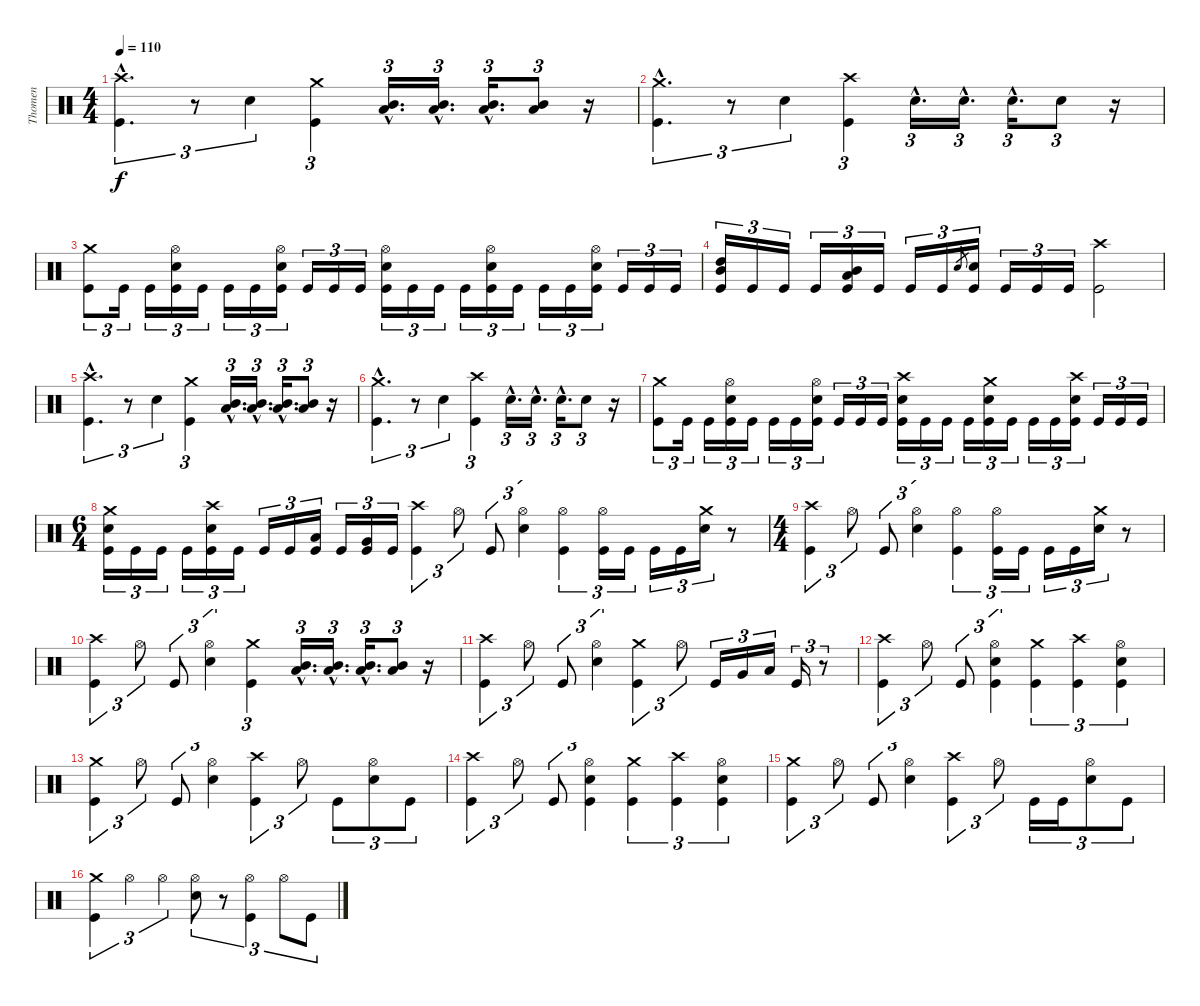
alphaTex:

\track ("Thomen" "Thomen") {instrument percussion}
\staff {score}
\articulation defaults
\ts (4 4)
\tempo 110
\clef neutral
\ks c
("Crash high (hit)"{hac} "Kick (hit)"{hac}).4{d tu (3 2) dy f} r.8{tu (3 2)} "Snare (hit) 2".4{tu (3 2)} ("Crash medium (hit)" "Kick (hit)").4{tu (3 2)} ("Low Tom (hit)"{hac} "Mid Tom (hit)"{hac}).16{d tu (3 2)} ("Low Tom (hit)"{hac} "Mid Tom (hit)"{hac}).16{d tu (3 2)} ("Low Tom (hit)"{hac} "Mid Tom (hit)"{hac}).16{d tu (3 2)} ("Low Tom (hit)" "Mid Tom (hit)").8{tu (3 2)} r.16 |
("Crash medium (hit)"{hac} "Kick (hit)"{hac}).4{d tu (3 2)} r.8{tu (3 2)} "Snare (hit) 2".4{tu (3 2)} ("Crash high (hit)" "Kick (hit)").4{tu (3 2)} "Snare (hit) 2"{hac}.16{d tu (3 2)} "Snare (hit) 2"{hac}.16{d tu (3 2)} "Snare (hit) 2"{hac}.16{d tu (3 2)} "Snare (hit) 2".8{tu (3 2)} r.16 |
("Crash medium (hit)" "Kick (hit)").8{tu (3 2)} "Kick (hit)".16{tu (3 2)} "Kick (hit)".16{tu (3 2)} ("Hi-Hat (open)" "Snare (hit) 2" "Kick (hit)").16{tu (3 2)} "Kick (hit)".16{tu (3 2)} "Kick (hit)".16{tu (3 2)} "Kick (hit)".16{tu (3 2)} ("Hi-Hat (open)" "Snare (hit) 2" "Kick (hit)").16{tu (3 2)} "Kick (hit)".16{tu (3 2)} "Kick (hit)".16{tu (3 2)} "Kick (hit)".16{tu (3 2)} ("Hi-Hat (open)" "Snare (hit) 2" "Kick (hit)").16{tu (3 2)} "Kick (hit)".16{tu (3 2)} "Kick (hit)".16{tu (3 2)} "Kick (hit)".16{tu (3 2)} ("Hi-Hat (open)" "Snare (hit) 2" "Kick (hit)").16{tu (3 2)} "Kick (hit)".16{tu (3 2)} "Kick (hit)".16{tu (3 2)} "Kick (hit)".16{tu (3 2)} ("Hi-Hat (open)" "Snare (hit) 2" "Kick (hit)").16{tu (3 2)} "Kick (hit)".16{tu (3 2)} "Kick (hit)".16{tu (3 2)} "Kick (hit)".16{tu (3 2)} |
("High Tom (hit)" "Mid Tom (hit)" "Kick (hit)").16{tu (3 2)} "Kick (hit)".16{tu (3 2)} "Kick (hit)".16{tu (3 2)} "Kick (hit)".16{tu (3 2)} ("Mid Tom (hit)" "Low Tom (hit)" "Kick (hit)").16{tu (3 2)} "Kick (hit)".16{tu (3 2)} "Kick (hit)".16{tu (3 2)} "Kick (hit)".16{tu (3 2)} "Snare (hit) 2".8{gr} ("Snare (hit) 2" "Kick (hit)").16{tu (3 2)} "Kick (hit)".16{tu (3 2)} "Kick (hit)".16{tu (3 2)} "Kick (hit)".16{tu (3 2)} ("Crash high (hit)" "Kick (hit)").2 |
("Crash high (hit)"{hac} "Kick (hit)"{hac}).4{d tu (3 2)} r.8{tu (3 2)} "Snare (hit) 2".4{tu (3 2)} ("Crash medium (hit)" "Kick (hit)").4{tu (3 2)} ("Low Tom (hit)"{hac} "Mid Tom (hit)"{hac}).16{d tu (3 2)} ("Low Tom (hit)"{hac} "Mid Tom (hit)"{hac}).16{d tu (3 2)} ("Low Tom (hit)"{hac} "Mid Tom (hit)"{hac}).16{d tu (3 2)} ("Low Tom (hit)" "Mid Tom (hit)").8{tu (3 2)} r.16 |
("Crash medium (hit)"{hac} "Kick (hit)"{hac}).4{d tu (3 2)} r.8{tu (3 2)} "Snare (hit) 2".4{tu (3 2)} ("Crash high (hit)" "Kick (hit)").4{tu (3 2)} "Snare (hit) 2"{hac}.16{d tu (3 2)} "Snare (hit) 2"{hac}.16{d tu (3 2)} "Snare (hit) 2"{hac}.16{d tu (3 2)} "Snare (hit) 2".8{tu (3 2)} r.16 |
("Crash medium (hit)" "Kick (hit)").8{tu (3 2)} "Kick (hit)".16{tu (3 2)} "Kick (hit)".16{tu (3 2)} ("Hi-Hat (open)" "Snare (hit) 2" "Kick (hit)").16{tu (3 2)} "Kick (hit)".16{tu (3 2)} "Kick (hit)".16{tu (3 2)} "Kick (hit)".16{tu (3 2)} ("Hi-Hat (open)" "Snare (hit) 2" "Kick (hit)").16{tu (3 2)} "Kick (hit)".16{tu (3 2)} "Kick (hit)".16{tu (3 2)} "Kick (hit)".16{tu (3 2)} ("Crash high (hit)" "Snare (hit) 2" "Kick (hit)").16{tu (3 2)} "Kick (hit)".16{tu (3 2)} "Kick (hit)".16{tu (3 2)} "Kick (hit)".16{tu (3 2)} ("Crash medium (hit)" "Snare (hit) 2" "Kick (hit)").16{tu (3 2)} "Kick (hit)".16{tu (3 2)} "Kick (hit)".16{tu (3 2)} "Kick (hit)".16{tu (3 2)} ("Crash high (hit)" "Snare (hit) 2" "Kick (hit)").16{tu (3 2)} "Kick (hit)".16{tu (3 2)} "Kick (hit)".16{tu (3 2)} "Kick (hit)".16{tu (3 2)} |
\ts (6 4)
("Crash medium (hit)" "Snare (hit) 2" "Kick (hit)").16{tu (3 2)} "Kick (hit)".16{tu (3 2)} "Kick (hit)".16{tu (3 2)} "Kick (hit)".16{tu (3 2)} ("Crash high (hit)" "Snare (hit) 2" "Kick (hit)").16{tu (3 2)} "Kick (hit)".16{tu (3 2)} "Kick (hit)".16{tu (3 2)} "Kick (hit)".16{tu (3 2)} ("Low Tom (hit)" "Kick (hit)").16{tu (3 2)} "Kick (hit)".16{tu (3 2)} ("Very Low Tom (hit)" "Kick (hit)").16{tu (3 2)} "Kick (hit)".16{tu (3 2)} ("Crash high (hit)" "Kick (hit)").4{tu (3 2)} "Hi-Hat (open)".8{tu (3 2)} "Kick (hit)".8{tu (3 2)} ("Hi-Hat (open)" "Snare (hit) 2").4{tu (3 2)} ("Hi-Hat (open)" "Kick (hit)").4{tu (3 2)} ("Hi-Hat (open)" "Kick (hit)").16{tu (3 2)} "Kick (hit)".16{tu (3 2)} "Kick (hit)".16{tu (3 2)} "Kick (hit)".16{tu (3 2)} ("Crash medium (hit)" "Snare (hit) 2").16{tu (3 2)} r.8 |
\ts (4 4)
("Crash high (hit)" "Kick (hit)").4{tu (3 2)} "Hi-Hat (open)".8{tu (3 2)} "Kick (hit)".8{tu (3 2)} ("Hi-Hat (open)" "Snare (hit) 2").4{tu (3 2)} ("Hi-Hat (open)" "Kick (hit)").4{tu (3 2)} ("Hi-Hat (open)" "Kick (hit)").16{tu (3 2)} "Kick (hit)".16{tu (3 2)} "Kick (hit)".16{tu (3 2)} "Kick (hit)".16{tu (3 2)} ("Crash medium (hit)" "Snare (hit) 2").16{tu (3 2)} r.8 |
("Crash high (hit)" "Kick (hit)").4{tu (3 2)} "Hi-Hat (open)".8{tu (3 2)} "Kick (hit)".8{tu (3 2)} ("Hi-Hat (open)" "Snare (hit) 2").4{tu (3 2)} ("Crash medium (hit)" "Kick (hit)").4{tu (3 2)} ("Low Tom (hit)"{hac} "Mid Tom (hit)"{hac}).16{d tu (3 2)} ("Low Tom (hit)"{hac} "Mid Tom (hit)"{hac}).16{d tu (3 2)} ("Low Tom (hit)"{hac} "Mid Tom (hit)"{hac}).16{d tu (3 2)} ("Low Tom (hit)" "Mid Tom (hit)").8{tu (3 2)} r.16 |
("Crash high (hit)" "Kick (hit)").4{tu (3 2)} "Hi-Hat (open)".8{tu (3 2)} "Kick (hit)".8{tu (3 2)} ("Hi-Hat (open)" "Snare (hit) 2").4{tu (3 2)} ("Crash medium (hit)" "Kick (hit)").4{tu (3 2)} "Hi-Hat (open)".8{tu (3 2)} "Kick (hit)".16{tu (3 2)} "Very Low Tom (hit)".16{tu (3 2)} "Low Floor Tom (hit)".16{tu (3 2)} "Kick (hit)".16{tu (3 2)} r.8{tu (3 2)} |
("Crash high (hit)" "Kick (hit)").4{tu (3 2)} "Hi-Hat (open)".8{tu (3 2)} "Kick (hit)".8{tu (3 2)} ("Hi-Hat (open)" "Snare (hit) 2" "Kick (hit)").4{tu (3 2)} ("Crash medium (hit)" "Kick (hit)").4{tu (3 2)} ("Crash high (hit)" "Kick (hit)").4{tu (3 2)} ("Hi-Hat (open)" "Snare (hit) 2" "Kick (hit)").4{tu (3 2)} |
("Crash medium (hit)" "Kick (hit)").4{tu (3 2)} "Hi-Hat (open)".8{tu (3 2)} "Kick (hit)".8{tu (3 2)} ("Hi-Hat (open)" "Snare (hit) 2").4{tu (3 2)} ("Crash high (hit)" "Kick (hit)").4{tu (3 2)} "Hi-Hat (open)".8{tu (3 2)} "Kick (hit)".8{tu (3 2)} ("Hi-Hat (open)" "Snare (hit) 2").8{tu (3 2)} "Kick (hit)".8{tu (3 2)} |
("Crash high (hit)" "Kick (hit)").4{tu (3 2)} "Hi-Hat (open)".8{tu (3 2)} "Kick (hit)".8{tu (3 2)} ("Hi-Hat (open)" "Snare (hit) 2" "Kick (hit)").4{tu (3 2)} ("Crash medium (hit)" "Kick (hit)").4{tu (3 2)} ("Crash high (hit)" "Kick (hit)").4{tu (3 2)} ("Hi-Hat (open)" "Snare (hit) 2" "Kick (hit)").4{tu (3 2)} |
("Crash medium (hit)" "Kick (hit)").4{tu (3 2)} "Hi-Hat (open)".8{tu (3 2)} "Kick (hit)".8{tu (3 2)} ("Hi-Hat (open)" "Snare (hit) 2").4{tu (3 2)} ("Crash high (hit)" "Kick (hit)").4{tu (3 2)} "Hi-Hat (open)".8{tu (3 2)} "Kick (hit)".16{tu (3 2)} "Kick (hit)".16{tu (3 2)} ("Hi-Hat (open)" "Snare (hit) 2").8{tu (3 2)} "Kick (hit)".8{tu (3 2)} |
("Crash medium (hit)" "Kick (hit)").4{tu (3 2)} "Hi-Hat (open)".4{tu (3 2)} "Hi-Hat (open)".4{tu (3 2)} ("Hi-Hat (open)" "Snare (hit) 2").8{tu (3 2)} r.8{tu (3 2)} ("Hi-Hat (open)" "Kick (hit)").4{tu (3 2)} "Hi-Hat (open)".8{tu (3 2)} "Kick (hit)".8{tu (3 2)}
